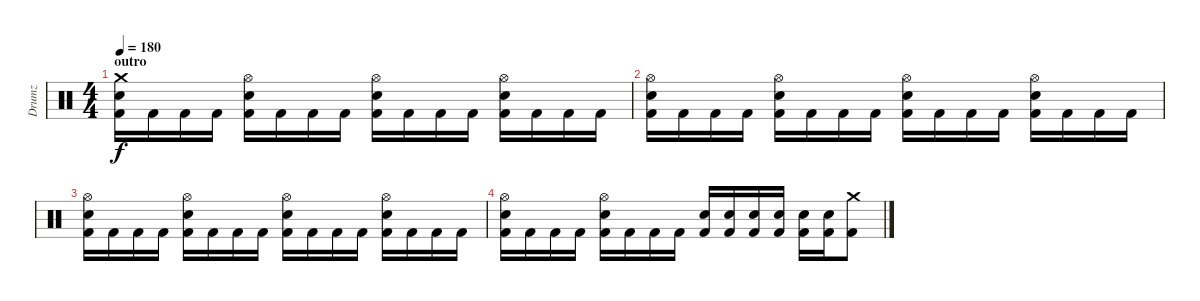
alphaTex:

\track ("Drumz" "Drumz") {instrument percussion}
\staff {score}
\articulation defaults
\ts (4 4)
\section ("" "outro")
\tempo 180
\clef neutral
\ks c
("Crash medium (hit)" "Electric Snare (hit)" "Kick (hit) 2").16{dy f} "Kick (hit) 2".16 "Kick (hit) 2".16 "Kick (hit) 2".16 ("Hi-Hat (open)" "Electric Snare (hit)" "Kick (hit) 2").16 "Kick (hit) 2".16 "Kick (hit) 2".16 "Kick (hit) 2".16 ("Hi-Hat (open)" "Electric Snare (hit)" "Kick (hit) 2").16 "Kick (hit) 2".16 "Kick (hit) 2".16 "Kick (hit) 2".16 ("Hi-Hat (open)" "Electric Snare (hit)" "Kick (hit) 2").16 "Kick (hit) 2".16 "Kick (hit) 2".16 "Kick (hit) 2".16 |
("Hi-Hat (open)" "Electric Snare (hit)" "Kick (hit) 2").16 "Kick (hit) 2".16 "Kick (hit) 2".16 "Kick (hit) 2".16 ("Hi-Hat (open)" "Electric Snare (hit)" "Kick (hit) 2").16 "Kick (hit) 2".16 "Kick (hit) 2".16 "Kick (hit) 2".16 ("Hi-Hat (open)" "Electric Snare (hit)" "Kick (hit) 2").16 "Kick (hit) 2".16 "Kick (hit) 2".16 "Kick (hit) 2".16 ("Hi-Hat (open)" "Electric Snare (hit)" "Kick (hit) 2").16 "Kick (hit) 2".16 "Kick (hit) 2".16 "Kick (hit) 2".16 |
("Hi-Hat (open)" "Electric Snare (hit)" "Kick (hit) 2").16 "Kick (hit) 2".16 "Kick (hit) 2".16 "Kick (hit) 2".16 ("Hi-Hat (open)" "Electric Snare (hit)" "Kick (hit) 2").16 "Kick (hit) 2".16 "Kick (hit) 2".16 "Kick (hit) 2".16 ("Hi-Hat (open)" "Electric Snare (hit)" "Kick (hit) 2").16 "Kick (hit) 2".16 "Kick (hit) 2".16 "Kick (hit) 2".16 ("Hi-Hat (open)" "Electric Snare (hit)" "Kick (hit) 2").16 "Kick (hit) 2".16 "Kick (hit) 2".16 "Kick (hit) 2".16 |
("Hi-Hat (open)" "Electric Snare (hit)" "Kick (hit) 2").16 "Kick (hit) 2".16 "Kick (hit) 2".16 "Kick (hit) 2".16 ("Hi-Hat (open)" "Electric Snare (hit)" "Kick (hit) 2").16 "Kick (hit) 2".16 "Kick (hit) 2".16 "Kick (hit) 2".16 ("Electric Snare (hit)" "Kick (hit) 2").16 ("Electric Snare (hit)" "Kick (hit) 2").16 ("Electric Snare (hit)" "Kick (hit) 2").16 ("Electric Snare (hit)" "Kick (hit) 2").16 ("Electric Snare (hit)" "Kick (hit) 2").16 ("Electric Snare (hit)" "Kick (hit) 2").16 ("Crash medium (hit)" "Kick (hit) 2").8
